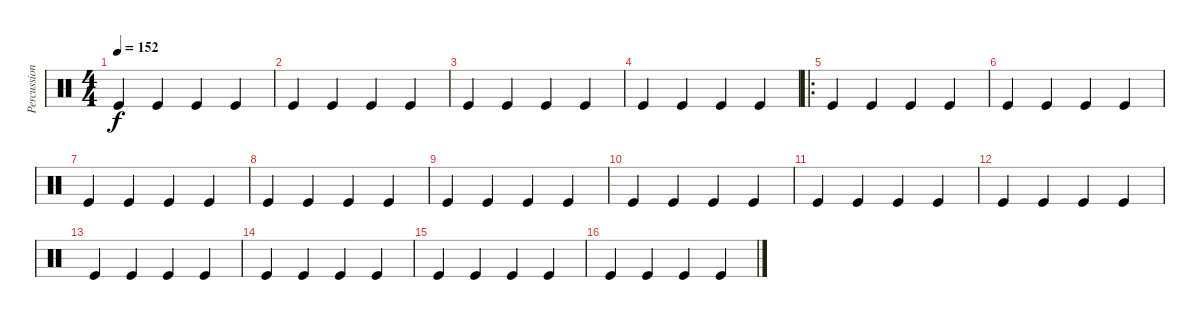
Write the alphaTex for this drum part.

\track ("Percussions" "Percussion") {instrument percussion}
\staff {score}
\articulation defaults
\ts (4 4)
\tempo 152
\clef neutral
\ks c "Kick (hit)".4{dy f} "Kick (hit)".4 "Kick (hit)".4 "Kick (hit)".4
|
"Kick (hit)".4 "Kick (hit)".4 "Kick (hit)".4 "Kick (hit)".4 |
"Kick (hit)".4 "Kick (hit)".4 "Kick (hit)".4 "Kick (hit)".4 |
"Kick (hit)".4 "Kick (hit)".4 "Kick (hit)".4 "Kick (hit)".4 |
\ro "Kick (hit)".4 "Kick (hit)".4 "Kick (hit)".4 "Kick (hit)".4
|
"Kick (hit)".4 "Kick (hit)".4 "Kick (hit)".4 "Kick (hit)".4 |
"Kick (hit)".4 "Kick (hit)".4 "Kick (hit)".4 "Kick (hit)".4 |
"Kick (hit)".4 "Kick (hit)".4 "Kick (hit)".4 "Kick (hit)".4 |
"Kick (hit)".4 "Kick (hit)".4 "Kick (hit)".4 "Kick (hit)".4 |
"Kick (hit)".4 "Kick (hit)".4 "Kick (hit)".4 "Kick (hit)".4 |
"Kick (hit)".4 "Kick (hit)".4 "Kick (hit)".4 "Kick (hit)".4 |
"Kick (hit)".4 "Kick (hit)".4 "Kick (hit)".4 "Kick (hit)".4 |
"Kick (hit)".4 "Kick (hit)".4 "Kick (hit)".4 "Kick (hit)".4 |
"Kick (hit)".4 "Kick (hit)".4 "Kick (hit)".4 "Kick (hit)".4 |
"Kick (hit)".4 "Kick (hit)".4 "Kick (hit)".4 "Kick (hit)".4 |
"Kick (hit)".4 "Kick (hit)".4 "Kick (hit)".4 "Kick (hit)".4
